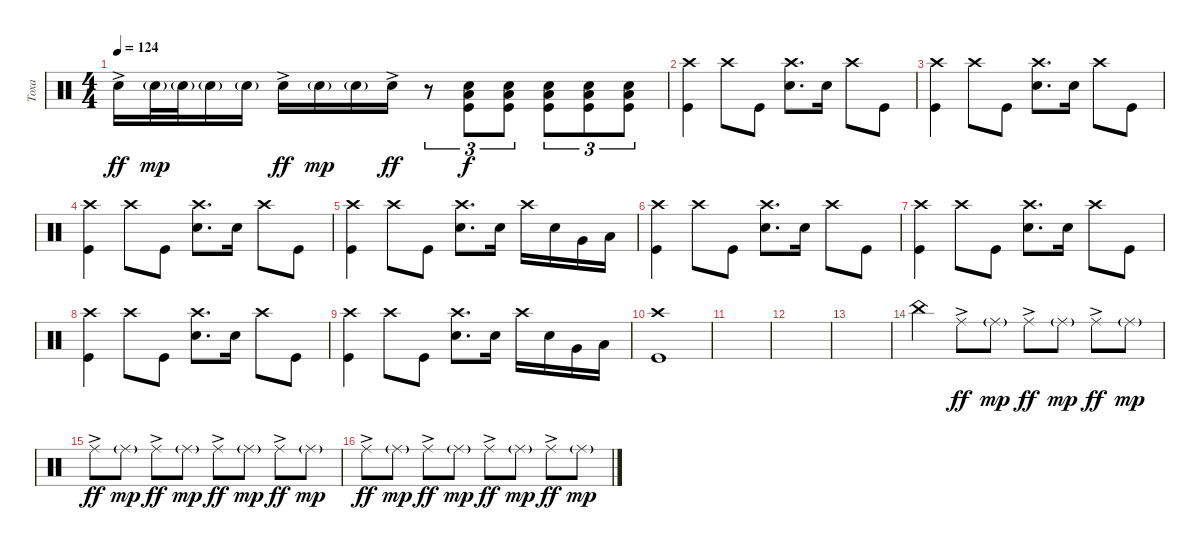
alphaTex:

\track ("Тоха" "Тоха") {instrument percussion}
\staff {score}
\articulation defaults
\ts (4 4)
\tempo 124
\clef neutral
\ks c "Snare (hit) 2"{ac}.16{dy ff} "Snare (hit) 2"{g}.32{dy mp} "Snare (hit) 2"{g}.32 "Snare (hit) 2"{g}.16 "Snare (hit) 2"{g}.16 "Snare (hit) 2"{ac}.16{dy ff} "Snare (hit) 2"{g}.16{dy mp} "Snare (hit) 2"{g}.16 "Snare (hit) 2"{ac}.16{dy ff}
r.8{tu (3 2)} ("Kick (hit)" "Snare (hit) 2" "Low Floor Tom (hit)").8{tu (3 2) dy f} ("Kick (hit)" "Snare (hit) 2" "Low Floor Tom (hit)").8{tu (3 2)} ("Kick (hit)" "Snare (hit) 2" "Low Floor Tom (hit)").8{tu (3 2)} ("Kick (hit)" "Snare (hit) 2" "Low Floor Tom (hit)").8{tu (3 2)} ("Kick (hit)" "Snare (hit) 2" "Low Floor Tom (hit)").8{tu (3 2)} |
("Kick (hit)" "Crash high (hit)").4 "Crash high (hit)".8 "Kick (hit)".8 ("Snare (hit) 2" "Crash high (hit)").8{d} "Snare (hit) 2".16 "Crash high (hit)".8 "Kick (hit)".8 |
("Kick (hit)" "Crash high (hit)").4 "Crash high (hit)".8 "Kick (hit)".8 ("Snare (hit) 2" "Crash high (hit)").8{d} "Snare (hit) 2".16 "Crash high (hit)".8 "Kick (hit)".8 |
("Kick (hit)" "Crash high (hit)").4 "Crash high (hit)".8 "Kick (hit)".8 ("Snare (hit) 2" "Crash high (hit)").8{d} "Snare (hit) 2".16 "Crash high (hit)".8 "Kick (hit)".8 |
("Kick (hit)" "Crash high (hit)").4 "Crash high (hit)".8 "Kick (hit)".8 ("Snare (hit) 2" "Crash high (hit)").8{d} "Snare (hit) 2".16 "Crash high (hit)".16 "Snare (hit) 2".16 "Very Low Tom (hit)".16 "Low Floor Tom (hit)".16 |
("Kick (hit)" "Crash high (hit)").4 "Crash high (hit)".8 "Kick (hit)".8 ("Snare (hit) 2" "Crash high (hit)").8{d} "Snare (hit) 2".16 "Crash high (hit)".8 "Kick (hit)".8 |
("Kick (hit)" "Crash high (hit)").4 "Crash high (hit)".8 "Kick (hit)".8 ("Snare (hit) 2" "Crash high (hit)").8{d} "Snare (hit) 2".16 "Crash high (hit)".8 "Kick (hit)".8 |
("Kick (hit)" "Crash high (hit)").4 "Crash high (hit)".8 "Kick (hit)".8 ("Snare (hit) 2" "Crash high (hit)").8{d} "Snare (hit) 2".16 "Crash high (hit)".8 "Kick (hit)".8 |
("Kick (hit)" "Crash high (hit)").4 "Crash high (hit)".8 "Kick (hit)".8 ("Snare (hit) 2" "Crash high (hit)").8{d} "Snare (hit) 2".16 "Crash high (hit)".16 "Snare (hit) 2".16 "Very Low Tom (hit)".16 "Low Floor Tom (hit)".16 |
("Kick (hit)" "Crash high (hit)").1 |
|
|
|
"China (hit)".4 "Ride (middle)"{ac}.8{dy ff} "Ride (middle)"{g}.8{dy mp} "Ride (middle)"{ac}.8{dy ff} "Ride (middle)"{g}.8{dy mp} "Ride (middle)"{ac}.8{dy ff} "Ride (middle)"{g}.8{dy mp} |
"Ride (middle)"{ac}.8{dy ff} "Ride (middle)"{g}.8{dy mp} "Ride (middle)"{ac}.8{dy ff} "Ride (middle)"{g}.8{dy mp} "Ride (middle)"{ac}.8{dy ff} "Ride (middle)"{g}.8{dy mp} "Ride (middle)"{ac}.8{dy ff} "Ride (middle)"{g}.8{dy mp} |
"Ride (middle)"{ac}.8{dy ff} "Ride (middle)"{g}.8{dy mp} "Ride (middle)"{ac}.8{dy ff} "Ride (middle)"{g}.8{dy mp} "Ride (middle)"{ac}.8{dy ff} "Ride (middle)"{g}.8{dy mp} "Ride (middle)"{ac}.8{dy ff} "Ride (middle)"{g}.8{dy mp}
